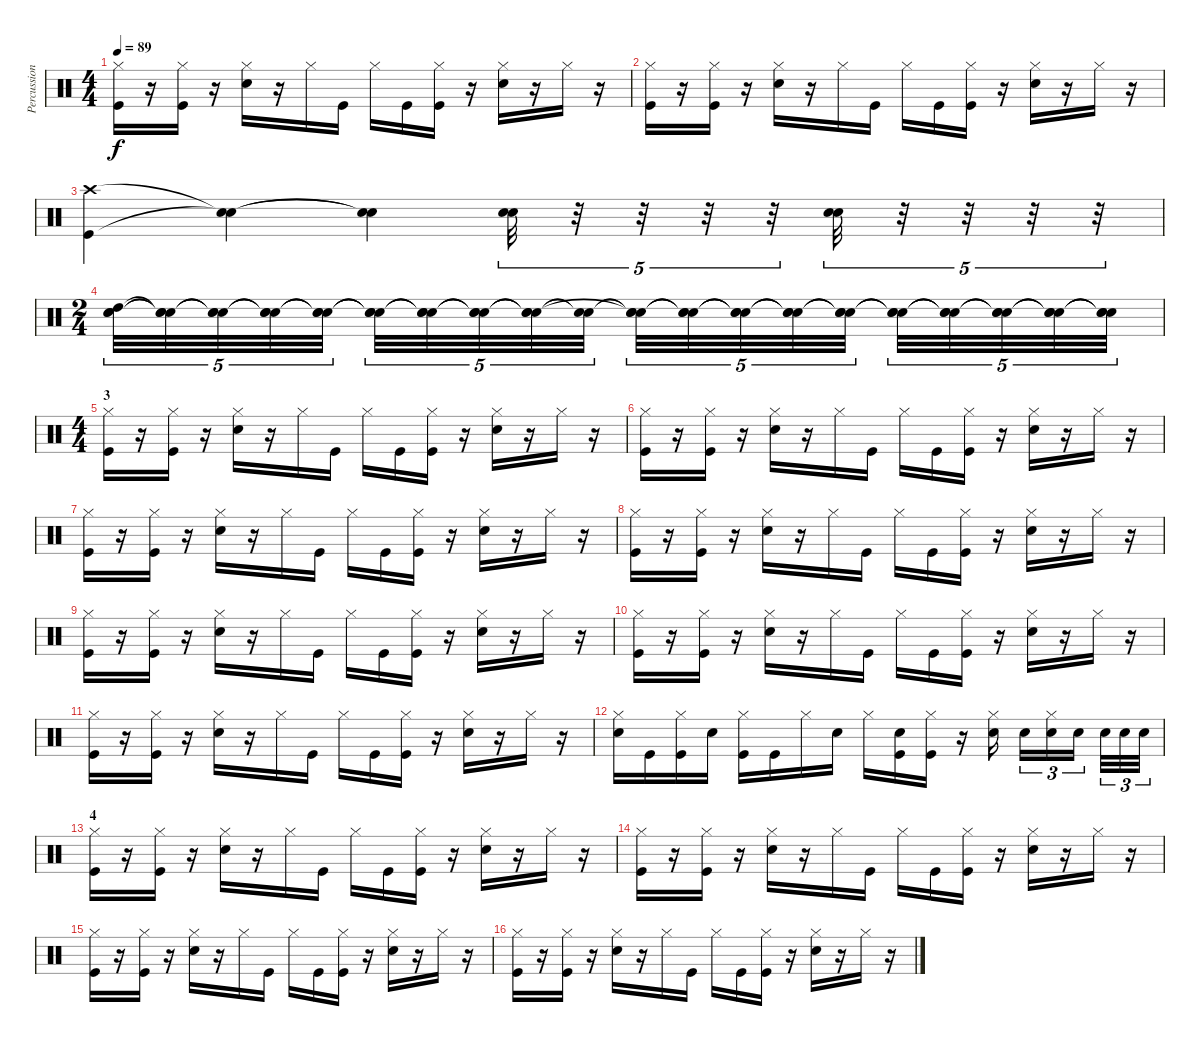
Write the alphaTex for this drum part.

\track ("Percussions" "Percussion") {instrument percussion}
\staff {score}
\articulation defaults
\ts (4 4)
\tempo 89
\clef neutral
\ks c
("Hi-Hat (closed)" "Kick (hit)").16{dy f} r.16 ("Hi-Hat (closed)" "Kick (hit)").16 r.16 ("Hi-Hat (closed)" "Electric Snare (hit)").16 r.16 "Hi-Hat (closed)".16 "Kick (hit)".16 "Hi-Hat (closed)".16 "Kick (hit)".16 ("Hi-Hat (closed)" "Kick (hit)").16 r.16 ("Hi-Hat (closed)" "Electric Snare (hit)").16 r.16 "Hi-Hat (closed)".16 r.16 |
("Hi-Hat (closed)" "Kick (hit)").16 r.16 ("Hi-Hat (closed)" "Kick (hit)").16 r.16 ("Hi-Hat (closed)" "Electric Snare (hit)").16 r.16 "Hi-Hat (closed)".16 "Kick (hit)".16 "Hi-Hat (closed)".16 "Kick (hit)".16 ("Hi-Hat (closed)" "Kick (hit)").16 r.16 ("Hi-Hat (closed)" "Electric Snare (hit)").16 r.16 "Hi-Hat (closed)".16 r.16 |
("Crash high (hit)" "Kick (hit)").4 ("Snare (hit)"{t} "Snare (hit)"{t}).4 ("Snare (hit)"{t} "Snare (hit)"{t}).4 ("Snare (hit) 2" "Electric Snare (hit)").32{tu (5 4) bd 60} r.32{tu (5 4)} r.32{tu (5 4)} r.32{tu (5 4)} r.32{tu (5 4)} ("Electric Snare (hit)" "Snare (hit) 2").32{tu (5 4) bu 240} r.32{tu (5 4)} r.32{tu (5 4)} r.32{tu (5 4)} r.32{tu (5 4)} |
\ts (2 4)
("Snare (hit) 2" "High Tom (hit)" "Electric Snare (hit)").32{tu (5 4)} ("Snare (hit)"{t} "Snare (hit)"{t} "Snare (hit)"{t}).32{tu (5 4)} ("Snare (hit)"{t} "Snare (hit)"{t} "Snare (hit)"{t}).32{tu (5 4)} ("Snare (hit)"{t} "Snare (hit)"{t} "Snare (hit)"{t}).32{tu (5 4)} ("Snare (hit)"{t} "Snare (hit)"{t} "Snare (hit)"{t}).32{tu (5 4)} ("Snare (hit)"{t} "Snare (hit)"{t} "Snare (hit)"{t}).32{tu (5 4)} ("Snare (hit)"{t} "Snare (hit)"{t} "Snare (hit)"{t}).32{tu (5 4)} ("Snare (hit)"{t} "Snare (hit)"{t} "Snare (hit)"{t}).32{tu (5 4)} ("Snare (hit)"{t} "Snare (hit)"{t} "Snare (hit)"{t}).32{tu (5 4)} ("Snare (hit)"{t} "Snare (hit)"{t}).32{tu (5 4)} ("Snare (hit)"{t} "Snare (hit)"{t} "Snare (hit)"{t}).32{tu (5 4)} ("Snare (hit)"{t} "Snare (hit)"{t} "Snare (hit)"{t}).32{tu (5 4)} ("Snare (hit)"{t} "Snare (hit)"{t} "Snare (hit)"{t}).32{tu (5 4)} ("Snare (hit)"{t} "Snare (hit)"{t} "Snare (hit)"{t}).32{tu (5 4)} ("Snare (hit)"{t} "Snare (hit)"{t} "Snare (hit)"{t}).32{tu (5 4)} ("Snare (hit)"{t} "Snare (hit)"{t} "Snare (hit)"{t}).32{tu (5 4)} ("Snare (hit)"{t} "Snare (hit)"{t} "Snare (hit)"{t}).32{tu (5 4)} ("Snare (hit)"{t} "Snare (hit)"{t} "Snare (hit)"{t}).32{tu (5 4)} ("Snare (hit)"{t} "Snare (hit)"{t} "Snare (hit)"{t}).32{tu (5 4)} ("Snare (hit)"{t} "Snare (hit)"{t} "Snare (hit)"{t}).32{tu (5 4)} |
\ts (4 4)
\section ("" "3")
("Hi-Hat (closed)" "Kick (hit)").16 r.16 ("Hi-Hat (closed)" "Kick (hit)").16 r.16 ("Hi-Hat (closed)" "Electric Snare (hit)").16 r.16 "Hi-Hat (closed)".16 "Kick (hit)".16 "Hi-Hat (closed)".16 "Kick (hit)".16 ("Hi-Hat (closed)" "Kick (hit)").16 r.16 ("Hi-Hat (closed)" "Electric Snare (hit)").16 r.16 "Hi-Hat (closed)".16 r.16 |
("Hi-Hat (closed)" "Kick (hit)").16 r.16 ("Hi-Hat (closed)" "Kick (hit)").16 r.16 ("Hi-Hat (closed)" "Electric Snare (hit)").16 r.16 "Hi-Hat (closed)".16 "Kick (hit)".16 "Hi-Hat (closed)".16 "Kick (hit)".16 ("Hi-Hat (closed)" "Kick (hit)").16 r.16 ("Hi-Hat (closed)" "Electric Snare (hit)").16 r.16 "Hi-Hat (closed)".16 r.16 |
("Hi-Hat (closed)" "Kick (hit)").16 r.16 ("Hi-Hat (closed)" "Kick (hit)").16 r.16 ("Hi-Hat (closed)" "Electric Snare (hit)").16 r.16 "Hi-Hat (closed)".16 "Kick (hit)".16 "Hi-Hat (closed)".16 "Kick (hit)".16 ("Hi-Hat (closed)" "Kick (hit)").16 r.16 ("Hi-Hat (closed)" "Electric Snare (hit)").16 r.16 "Hi-Hat (closed)".16 r.16 |
("Hi-Hat (closed)" "Kick (hit)").16 r.16 ("Hi-Hat (closed)" "Kick (hit)").16 r.16 ("Hi-Hat (closed)" "Electric Snare (hit)").16 r.16 "Hi-Hat (closed)".16 "Kick (hit)".16 "Hi-Hat (closed)".16 "Kick (hit)".16 ("Hi-Hat (closed)" "Kick (hit)").16 r.16 ("Hi-Hat (closed)" "Electric Snare (hit)").16 r.16 "Hi-Hat (closed)".16 r.16 |
("Hi-Hat (closed)" "Kick (hit)").16 r.16 ("Hi-Hat (closed)" "Kick (hit)").16 r.16 ("Hi-Hat (closed)" "Electric Snare (hit)").16 r.16 "Hi-Hat (closed)".16 "Kick (hit)".16 "Hi-Hat (closed)".16 "Kick (hit)".16 ("Hi-Hat (closed)" "Kick (hit)").16 r.16 ("Hi-Hat (closed)" "Electric Snare (hit)").16 r.16 "Hi-Hat (closed)".16 r.16 |
("Hi-Hat (closed)" "Kick (hit)").16 r.16 ("Hi-Hat (closed)" "Kick (hit)").16 r.16 ("Hi-Hat (closed)" "Electric Snare (hit)").16 r.16 "Hi-Hat (closed)".16 "Kick (hit)".16 "Hi-Hat (closed)".16 "Kick (hit)".16 ("Hi-Hat (closed)" "Kick (hit)").16 r.16 ("Hi-Hat (closed)" "Electric Snare (hit)").16 r.16 "Hi-Hat (closed)".16 r.16 |
("Hi-Hat (closed)" "Kick (hit)").16 r.16 ("Hi-Hat (closed)" "Kick (hit)").16 r.16 ("Hi-Hat (closed)" "Electric Snare (hit)").16 r.16 "Hi-Hat (closed)".16 "Kick (hit)".16 "Hi-Hat (closed)".16 "Kick (hit)".16 ("Hi-Hat (closed)" "Kick (hit)").16 r.16 ("Hi-Hat (closed)" "Electric Snare (hit)").16 r.16 "Hi-Hat (closed)".16 r.16 |
("Hi-Hat (closed)" "Electric Snare (hit)").16 "Kick (hit)".16 ("Hi-Hat (closed)" "Kick (hit)").16 "Electric Snare (hit)".16 ("Hi-Hat (closed)" "Kick (hit)").16 "Kick (hit)".16 "Hi-Hat (closed)".16 "Electric Snare (hit)".16 "Hi-Hat (closed)".16 ("Electric Snare (hit)" "Kick (hit)").16 ("Hi-Hat (closed)" "Kick (hit)").16 r.16 ("Hi-Hat (closed)" "Electric Snare (hit)").16 "Electric Snare (hit)".16{tu (3 2)} ("Hi-Hat (closed)" "Electric Snare (hit)").16{tu (3 2)} "Electric Snare (hit)".16{tu (3 2)} "Electric Snare (hit)".32{tu (3 2)} "Electric Snare (hit)".32{tu (3 2)} "Snare (hit) 2".32{tu (3 2)} |
\section ("" "4")
("Hi-Hat (closed)" "Kick (hit)").16 r.16 ("Hi-Hat (closed)" "Kick (hit)").16 r.16 ("Hi-Hat (closed)" "Electric Snare (hit)").16 r.16 "Hi-Hat (closed)".16 "Kick (hit)".16 "Hi-Hat (closed)".16 "Kick (hit)".16 ("Hi-Hat (closed)" "Kick (hit)").16 r.16 ("Hi-Hat (closed)" "Electric Snare (hit)").16 r.16 "Hi-Hat (closed)".16 r.16 |
("Hi-Hat (closed)" "Kick (hit)").16 r.16 ("Hi-Hat (closed)" "Kick (hit)").16 r.16 ("Hi-Hat (closed)" "Electric Snare (hit)").16 r.16 "Hi-Hat (closed)".16 "Kick (hit)".16 "Hi-Hat (closed)".16 "Kick (hit)".16 ("Hi-Hat (closed)" "Kick (hit)").16 r.16 ("Hi-Hat (closed)" "Electric Snare (hit)").16 r.16 "Hi-Hat (closed)".16 r.16 |
("Hi-Hat (closed)" "Kick (hit)").16 r.16 ("Hi-Hat (closed)" "Kick (hit)").16 r.16 ("Hi-Hat (closed)" "Electric Snare (hit)").16 r.16 "Hi-Hat (closed)".16 "Kick (hit)".16 "Hi-Hat (closed)".16 "Kick (hit)".16 ("Hi-Hat (closed)" "Kick (hit)").16 r.16 ("Hi-Hat (closed)" "Electric Snare (hit)").16 r.16 "Hi-Hat (closed)".16 r.16 |
("Hi-Hat (closed)" "Kick (hit)").16 r.16 ("Hi-Hat (closed)" "Kick (hit)").16 r.16 ("Hi-Hat (closed)" "Electric Snare (hit)").16 r.16 "Hi-Hat (closed)".16 "Kick (hit)".16 "Hi-Hat (closed)".16 "Kick (hit)".16 ("Hi-Hat (closed)" "Kick (hit)").16 r.16 ("Hi-Hat (closed)" "Electric Snare (hit)").16 r.16 "Hi-Hat (closed)".16 r.16
